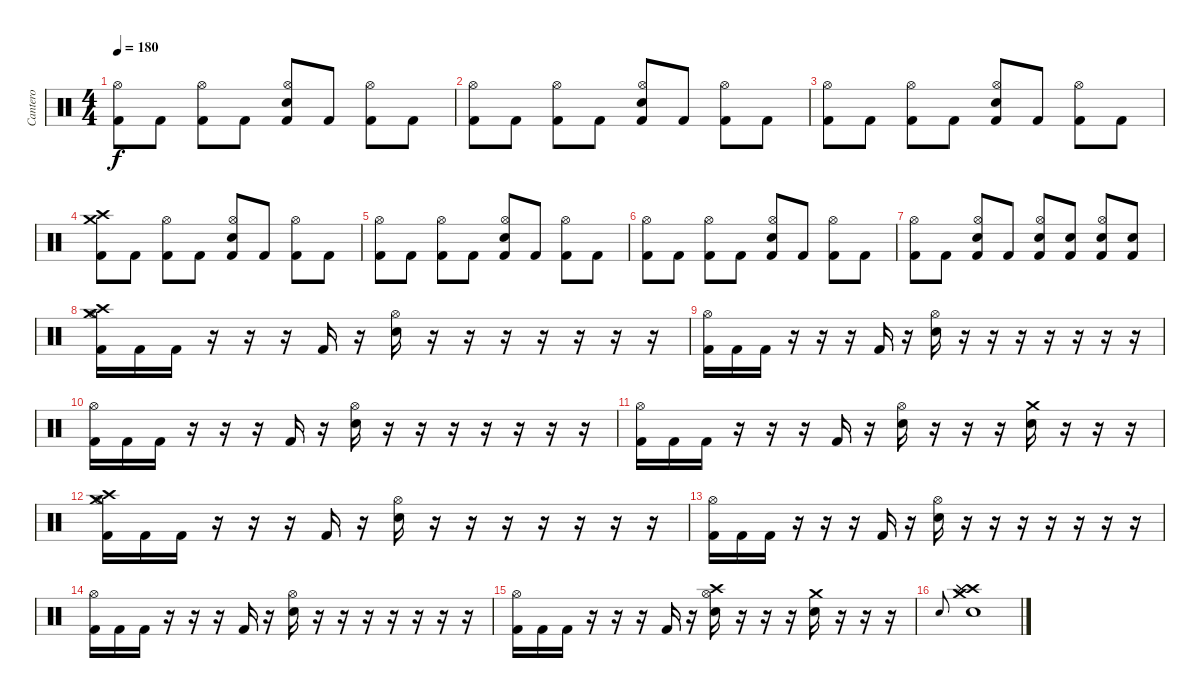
\track ("Cantero" "Cantero") {instrument percussion}
\staff {score}
\articulation defaults
\ts (4 4)
\tempo 180
\clef neutral
\ks c
("Kick (hit) 2" "Hi-Hat (open)").8{dy f} "Kick (hit) 2".8 ("Kick (hit) 2" "Hi-Hat (open)").8 "Kick (hit) 2".8 ("Kick (hit) 2" "Electric Snare (hit)" "Hi-Hat (open)").8 "Kick (hit) 2".8 ("Kick (hit) 2" "Hi-Hat (open)").8 "Kick (hit) 2".8 |
("Kick (hit) 2" "Hi-Hat (open)").8 "Kick (hit) 2".8 ("Kick (hit) 2" "Hi-Hat (open)").8 "Kick (hit) 2".8 ("Kick (hit) 2" "Electric Snare (hit)" "Hi-Hat (open)").8 "Kick (hit) 2".8 ("Kick (hit) 2" "Hi-Hat (open)").8 "Kick (hit) 2".8 |
("Kick (hit) 2" "Hi-Hat (open)").8 "Kick (hit) 2".8 ("Kick (hit) 2" "Hi-Hat (open)").8 "Kick (hit) 2".8 ("Kick (hit) 2" "Electric Snare (hit)" "Hi-Hat (open)").8 "Kick (hit) 2".8 ("Kick (hit) 2" "Hi-Hat (open)").8 "Kick (hit) 2".8 |
("Kick (hit) 2" "Crash high (hit)" "Crash medium (hit)").8 "Kick (hit) 2".8 ("Kick (hit) 2" "Hi-Hat (open)").8 "Kick (hit) 2".8 ("Kick (hit) 2" "Electric Snare (hit)" "Hi-Hat (open)").8 "Kick (hit) 2".8 ("Kick (hit) 2" "Hi-Hat (open)").8 "Kick (hit) 2".8 |
("Kick (hit) 2" "Hi-Hat (open)").8 "Kick (hit) 2".8 ("Kick (hit) 2" "Hi-Hat (open)").8 "Kick (hit) 2".8 ("Kick (hit) 2" "Electric Snare (hit)" "Hi-Hat (open)").8 "Kick (hit) 2".8 ("Kick (hit) 2" "Hi-Hat (open)").8 "Kick (hit) 2".8 |
("Kick (hit) 2" "Hi-Hat (open)").8 "Kick (hit) 2".8 ("Kick (hit) 2" "Hi-Hat (open)").8 "Kick (hit) 2".8 ("Kick (hit) 2" "Electric Snare (hit)" "Hi-Hat (open)").8 "Kick (hit) 2".8 ("Kick (hit) 2" "Hi-Hat (open)").8 "Kick (hit) 2".8 |
("Kick (hit) 2" "Hi-Hat (open)").8 "Kick (hit) 2".8 ("Kick (hit) 2" "Hi-Hat (open)" "Electric Snare (hit)").8 "Kick (hit) 2".8 ("Kick (hit) 2" "Electric Snare (hit)" "Hi-Hat (open)").8 ("Kick (hit) 2" "Electric Snare (hit)").8 ("Kick (hit) 2" "Hi-Hat (open)" "Electric Snare (hit)").8 ("Kick (hit) 2" "Electric Snare (hit)").8 |
("Kick (hit) 2" "Hi-Hat (open)" "Crash high (hit)" "Crash medium (hit)").16 "Kick (hit) 2".16 "Kick (hit) 2".16 r.16 r.16 r.16 "Kick (hit) 2".16 r.16 ("Electric Snare (hit)" "Hi-Hat (open)").16 r.16 r.16 r.16 r.16 r.16 r.16 r.16 |
("Kick (hit) 2" "Hi-Hat (open)").16 "Kick (hit) 2".16 "Kick (hit) 2".16 r.16 r.16 r.16 "Kick (hit) 2".16 r.16 ("Electric Snare (hit)" "Hi-Hat (open)").16 r.16 r.16 r.16 r.16 r.16 r.16 r.16 |
("Kick (hit) 2" "Hi-Hat (open)").16 "Kick (hit) 2".16 "Kick (hit) 2".16 r.16 r.16 r.16 "Kick (hit) 2".16 r.16 ("Electric Snare (hit)" "Hi-Hat (open)").16 r.16 r.16 r.16 r.16 r.16 r.16 r.16 |
("Kick (hit) 2" "Hi-Hat (open)").16 "Kick (hit) 2".16 "Kick (hit) 2".16 r.16 r.16 r.16 "Kick (hit) 2".16 r.16 ("Electric Snare (hit)" "Hi-Hat (open)").16 r.16 r.16 r.16 ("Electric Snare (hit)" "Crash medium (hit)").16 r.16 r.16 r.16 |
("Kick (hit) 2" "Hi-Hat (open)" "Crash high (hit)" "Crash medium (hit)").16 "Kick (hit) 2".16 "Kick (hit) 2".16 r.16 r.16 r.16 "Kick (hit) 2".16 r.16 ("Electric Snare (hit)" "Hi-Hat (open)").16 r.16 r.16 r.16 r.16 r.16 r.16 r.16 |
("Kick (hit) 2" "Hi-Hat (open)").16 "Kick (hit) 2".16 "Kick (hit) 2".16 r.16 r.16 r.16 "Kick (hit) 2".16 r.16 ("Electric Snare (hit)" "Hi-Hat (open)").16 r.16 r.16 r.16 r.16 r.16 r.16 r.16 |
("Kick (hit) 2" "Hi-Hat (open)").16 "Kick (hit) 2".16 "Kick (hit) 2".16 r.16 r.16 r.16 "Kick (hit) 2".16 r.16 ("Electric Snare (hit)" "Hi-Hat (open)").16 r.16 r.16 r.16 r.16 r.16 r.16 r.16 |
("Kick (hit) 2" "Hi-Hat (open)").16 "Kick (hit) 2".16 "Kick (hit) 2".16 r.16 r.16 r.16 "Kick (hit) 2".16 r.16 ("Electric Snare (hit)" "Hi-Hat (open)" "Crash high (hit)").16 r.16 r.16 r.16 ("Electric Snare (hit)" "Crash medium (hit)").16 r.16 r.16 r.16 |
"Electric Snare (hit)".8{gr onbeat} ("Electric Snare (hit)" "Crash high (hit)" "Crash medium (hit)" "Splash (hit)" "Splash (hit)" "Splash (hit)").1
